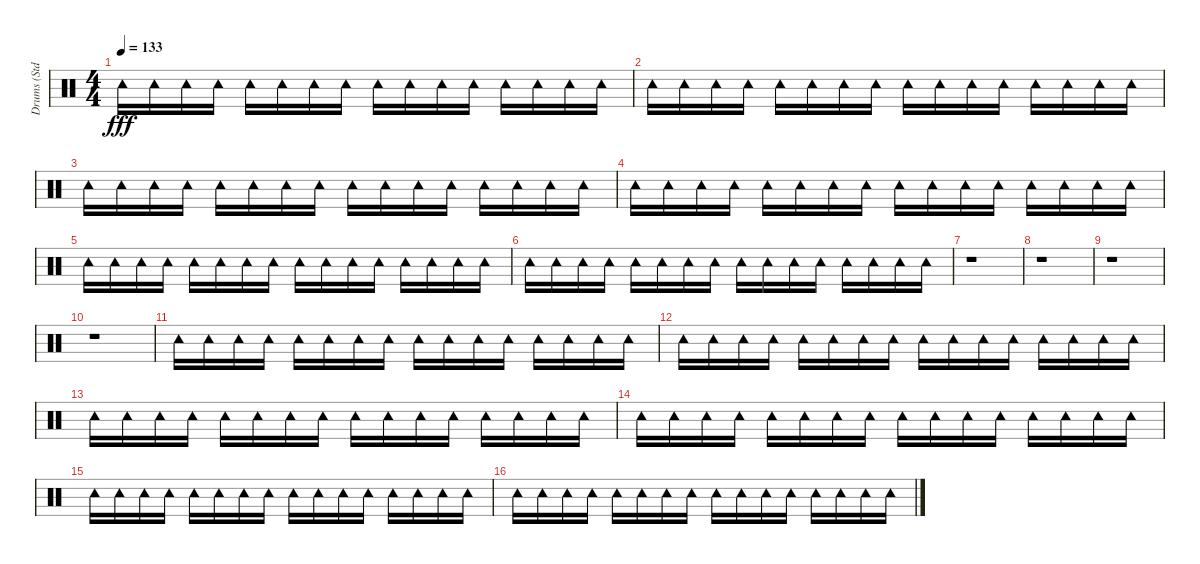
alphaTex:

\track ("Drums (Std.)" "Drums (Std") {instrument percussion}
\staff {score}
\articulation defaults
\ts (4 4)
\tempo 133
\clef neutral
\ks c "Tambourine (hit)".16{dy fff} "Tambourine (hit)".16 "Tambourine (hit)".16 "Tambourine (hit)".16 "Tambourine (hit)".16 "Tambourine (hit)".16 "Tambourine (hit)".16 "Tambourine (hit)".16 "Tambourine (hit)".16 "Tambourine (hit)".16 "Tambourine (hit)".16 "Tambourine (hit)".16 "Tambourine (hit)".16 "Tambourine (hit)".16 "Tambourine (hit)".16 "Tambourine (hit)".16
|
"Tambourine (hit)".16 "Tambourine (hit)".16 "Tambourine (hit)".16 "Tambourine (hit)".16 "Tambourine (hit)".16 "Tambourine (hit)".16 "Tambourine (hit)".16 "Tambourine (hit)".16 "Tambourine (hit)".16 "Tambourine (hit)".16 "Tambourine (hit)".16 "Tambourine (hit)".16 "Tambourine (hit)".16 "Tambourine (hit)".16 "Tambourine (hit)".16 "Tambourine (hit)".16 |
"Tambourine (hit)".16 "Tambourine (hit)".16 "Tambourine (hit)".16 "Tambourine (hit)".16 "Tambourine (hit)".16 "Tambourine (hit)".16 "Tambourine (hit)".16 "Tambourine (hit)".16 "Tambourine (hit)".16 "Tambourine (hit)".16 "Tambourine (hit)".16 "Tambourine (hit)".16 "Tambourine (hit)".16 "Tambourine (hit)".16 "Tambourine (hit)".16 "Tambourine (hit)".16 |
"Tambourine (hit)".16 "Tambourine (hit)".16 "Tambourine (hit)".16 "Tambourine (hit)".16 "Tambourine (hit)".16 "Tambourine (hit)".16 "Tambourine (hit)".16 "Tambourine (hit)".16 "Tambourine (hit)".16 "Tambourine (hit)".16 "Tambourine (hit)".16 "Tambourine (hit)".16 "Tambourine (hit)".16 "Tambourine (hit)".16 "Tambourine (hit)".16 "Tambourine (hit)".16 |
"Tambourine (hit)".16 "Tambourine (hit)".16 "Tambourine (hit)".16 "Tambourine (hit)".16 "Tambourine (hit)".16 "Tambourine (hit)".16 "Tambourine (hit)".16 "Tambourine (hit)".16 "Tambourine (hit)".16 "Tambourine (hit)".16 "Tambourine (hit)".16 "Tambourine (hit)".16 "Tambourine (hit)".16 "Tambourine (hit)".16 "Tambourine (hit)".16 "Tambourine (hit)".16 |
"Tambourine (hit)".16 "Tambourine (hit)".16 "Tambourine (hit)".16 "Tambourine (hit)".16 "Tambourine (hit)".16 "Tambourine (hit)".16 "Tambourine (hit)".16 "Tambourine (hit)".16 "Tambourine (hit)".16 "Tambourine (hit)".16 "Tambourine (hit)".16 "Tambourine (hit)".16 "Tambourine (hit)".16 "Tambourine (hit)".16 "Tambourine (hit)".16 "Tambourine (hit)".16 |
r.1 |
r.1 |
r.1 |
r.1 |
"Tambourine (hit)".16 "Tambourine (hit)".16 "Tambourine (hit)".16 "Tambourine (hit)".16 "Tambourine (hit)".16 "Tambourine (hit)".16 "Tambourine (hit)".16 "Tambourine (hit)".16 "Tambourine (hit)".16 "Tambourine (hit)".16 "Tambourine (hit)".16 "Tambourine (hit)".16 "Tambourine (hit)".16 "Tambourine (hit)".16 "Tambourine (hit)".16 "Tambourine (hit)".16 |
"Tambourine (hit)".16 "Tambourine (hit)".16 "Tambourine (hit)".16 "Tambourine (hit)".16 "Tambourine (hit)".16 "Tambourine (hit)".16 "Tambourine (hit)".16 "Tambourine (hit)".16 "Tambourine (hit)".16 "Tambourine (hit)".16 "Tambourine (hit)".16 "Tambourine (hit)".16 "Tambourine (hit)".16 "Tambourine (hit)".16 "Tambourine (hit)".16 "Tambourine (hit)".16 |
"Tambourine (hit)".16 "Tambourine (hit)".16 "Tambourine (hit)".16 "Tambourine (hit)".16 "Tambourine (hit)".16 "Tambourine (hit)".16 "Tambourine (hit)".16 "Tambourine (hit)".16 "Tambourine (hit)".16 "Tambourine (hit)".16 "Tambourine (hit)".16 "Tambourine (hit)".16 "Tambourine (hit)".16 "Tambourine (hit)".16 "Tambourine (hit)".16 "Tambourine (hit)".16 |
"Tambourine (hit)".16 "Tambourine (hit)".16 "Tambourine (hit)".16 "Tambourine (hit)".16 "Tambourine (hit)".16 "Tambourine (hit)".16 "Tambourine (hit)".16 "Tambourine (hit)".16 "Tambourine (hit)".16 "Tambourine (hit)".16 "Tambourine (hit)".16 "Tambourine (hit)".16 "Tambourine (hit)".16 "Tambourine (hit)".16 "Tambourine (hit)".16 "Tambourine (hit)".16 |
"Tambourine (hit)".16 "Tambourine (hit)".16 "Tambourine (hit)".16 "Tambourine (hit)".16 "Tambourine (hit)".16 "Tambourine (hit)".16 "Tambourine (hit)".16 "Tambourine (hit)".16 "Tambourine (hit)".16 "Tambourine (hit)".16 "Tambourine (hit)".16 "Tambourine (hit)".16 "Tambourine (hit)".16 "Tambourine (hit)".16 "Tambourine (hit)".16 "Tambourine (hit)".16 |
"Tambourine (hit)".16 "Tambourine (hit)".16 "Tambourine (hit)".16 "Tambourine (hit)".16 "Tambourine (hit)".16 "Tambourine (hit)".16 "Tambourine (hit)".16 "Tambourine (hit)".16 "Tambourine (hit)".16 "Tambourine (hit)".16 "Tambourine (hit)".16 "Tambourine (hit)".16 "Tambourine (hit)".16 "Tambourine (hit)".16 "Tambourine (hit)".16 "Tambourine (hit)".16
